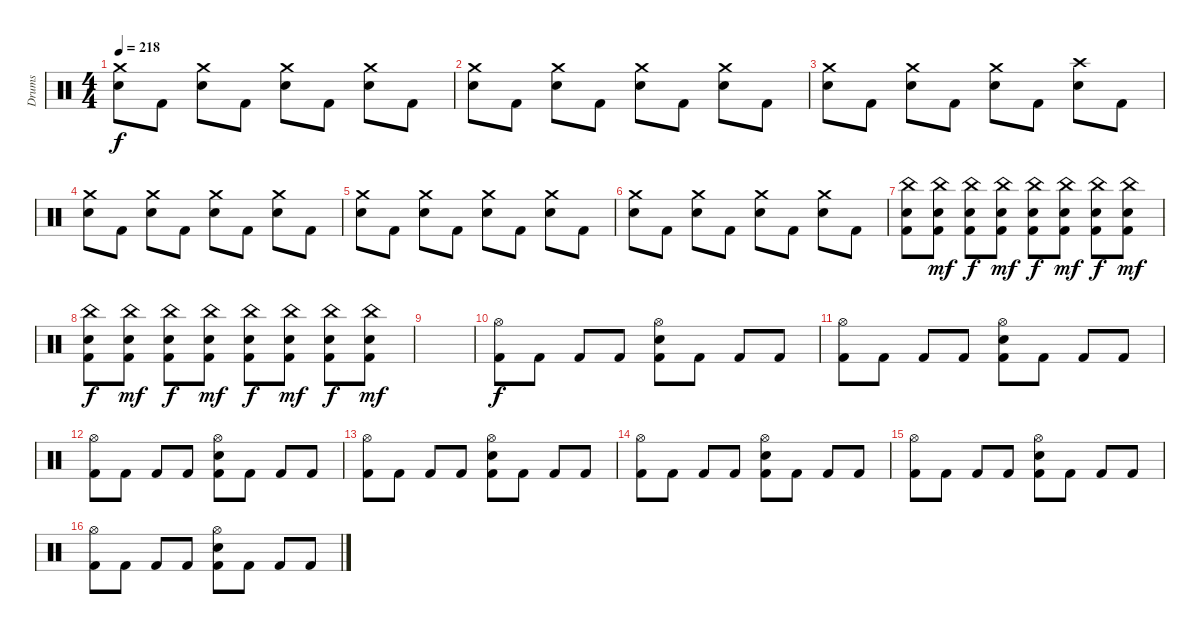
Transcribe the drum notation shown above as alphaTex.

\track ("Drums" "Drums") {instrument percussion}
\staff {score}
\articulation defaults
\ts (4 4)
\tempo 218
\clef neutral
\ks c
("Crash medium (hit)" "Electric Snare (hit)").8{dy f} "Kick (hit) 2".8 ("Crash medium (hit)" "Electric Snare (hit)").8 "Kick (hit) 2".8 ("Crash medium (hit)" "Electric Snare (hit)").8 "Kick (hit) 2".8 ("Crash medium (hit)" "Electric Snare (hit)").8 "Kick (hit) 2".8 |
("Crash medium (hit)" "Electric Snare (hit)").8 "Kick (hit) 2".8 ("Crash medium (hit)" "Electric Snare (hit)").8 "Kick (hit) 2".8 ("Crash medium (hit)" "Electric Snare (hit)").8 "Kick (hit) 2".8 ("Crash medium (hit)" "Electric Snare (hit)").8 "Kick (hit) 2".8 |
("Crash medium (hit)" "Electric Snare (hit)").8 "Kick (hit) 2".8 ("Crash medium (hit)" "Electric Snare (hit)").8 "Kick (hit) 2".8 ("Crash medium (hit)" "Electric Snare (hit)").8 "Kick (hit) 2".8 ("Crash high (hit)" "Electric Snare (hit)").8 "Kick (hit) 2".8 |
("Crash medium (hit)" "Electric Snare (hit)").8 "Kick (hit) 2".8 ("Crash medium (hit)" "Electric Snare (hit)").8 "Kick (hit) 2".8 ("Crash medium (hit)" "Electric Snare (hit)").8 "Kick (hit) 2".8 ("Crash medium (hit)" "Electric Snare (hit)").8 "Kick (hit) 2".8 |
("Crash medium (hit)" "Electric Snare (hit)").8 "Kick (hit) 2".8 ("Crash medium (hit)" "Electric Snare (hit)").8 "Kick (hit) 2".8 ("Crash medium (hit)" "Electric Snare (hit)").8 "Kick (hit) 2".8 ("Crash medium (hit)" "Electric Snare (hit)").8 "Kick (hit) 2".8 |
("Crash medium (hit)" "Electric Snare (hit)").8 "Kick (hit) 2".8 ("Crash medium (hit)" "Electric Snare (hit)").8 "Kick (hit) 2".8 ("Crash medium (hit)" "Electric Snare (hit)").8 "Kick (hit) 2".8 ("Crash medium (hit)" "Electric Snare (hit)").8 "Kick (hit) 2".8 |
("China (hit)" "Electric Snare (hit)" "Kick (hit) 2").8 ("China (hit)" "Electric Snare (hit)" "Kick (hit) 2").8{dy mf} ("China (hit)" "Electric Snare (hit)" "Kick (hit) 2").8{dy f} ("China (hit)" "Electric Snare (hit)" "Kick (hit) 2").8{dy mf} ("China (hit)" "Electric Snare (hit)" "Kick (hit) 2").8{dy f} ("China (hit)" "Electric Snare (hit)" "Kick (hit) 2").8{dy mf} ("China (hit)" "Electric Snare (hit)" "Kick (hit) 2").8{dy f} ("China (hit)" "Electric Snare (hit)" "Kick (hit) 2").8{dy mf} |
("China (hit)" "Electric Snare (hit)" "Kick (hit) 2").8{dy f} ("China (hit)" "Electric Snare (hit)" "Kick (hit) 2").8{dy mf} ("China (hit)" "Electric Snare (hit)" "Kick (hit) 2").8{dy f} ("China (hit)" "Electric Snare (hit)" "Kick (hit) 2").8{dy mf} ("China (hit)" "Electric Snare (hit)" "Kick (hit) 2").8{dy f} ("China (hit)" "Electric Snare (hit)" "Kick (hit) 2").8{dy mf} ("China (hit)" "Electric Snare (hit)" "Kick (hit) 2").8{dy f} ("China (hit)" "Electric Snare (hit)" "Kick (hit) 2").8{dy mf} |
|
("Hi-Hat (open)" "Kick (hit) 2").8{dy f} "Kick (hit) 2".8 "Kick (hit) 2".8 "Kick (hit) 2".8 ("Hi-Hat (open)" "Electric Snare (hit)" "Kick (hit) 2").8 "Kick (hit) 2".8 "Kick (hit) 2".8 "Kick (hit) 2".8 |
("Hi-Hat (open)" "Kick (hit) 2").8 "Kick (hit) 2".8 "Kick (hit) 2".8 "Kick (hit) 2".8 ("Hi-Hat (open)" "Electric Snare (hit)" "Kick (hit) 2").8 "Kick (hit) 2".8 "Kick (hit) 2".8 "Kick (hit) 2".8 |
("Hi-Hat (open)" "Kick (hit) 2").8 "Kick (hit) 2".8 "Kick (hit) 2".8 "Kick (hit) 2".8 ("Hi-Hat (open)" "Electric Snare (hit)" "Kick (hit) 2").8 "Kick (hit) 2".8 "Kick (hit) 2".8 "Kick (hit) 2".8 |
("Hi-Hat (open)" "Kick (hit) 2").8 "Kick (hit) 2".8 "Kick (hit) 2".8 "Kick (hit) 2".8 ("Hi-Hat (open)" "Electric Snare (hit)" "Kick (hit) 2").8 "Kick (hit) 2".8 "Kick (hit) 2".8 "Kick (hit) 2".8 |
("Hi-Hat (open)" "Kick (hit) 2").8 "Kick (hit) 2".8 "Kick (hit) 2".8 "Kick (hit) 2".8 ("Hi-Hat (open)" "Electric Snare (hit)" "Kick (hit) 2").8 "Kick (hit) 2".8 "Kick (hit) 2".8 "Kick (hit) 2".8 |
("Hi-Hat (open)" "Kick (hit) 2").8 "Kick (hit) 2".8 "Kick (hit) 2".8 "Kick (hit) 2".8 ("Hi-Hat (open)" "Electric Snare (hit)" "Kick (hit) 2").8 "Kick (hit) 2".8 "Kick (hit) 2".8 "Kick (hit) 2".8 |
("Hi-Hat (open)" "Kick (hit) 2").8 "Kick (hit) 2".8 "Kick (hit) 2".8 "Kick (hit) 2".8 ("Hi-Hat (open)" "Electric Snare (hit)" "Kick (hit) 2").8 "Kick (hit) 2".8 "Kick (hit) 2".8 "Kick (hit) 2".8
